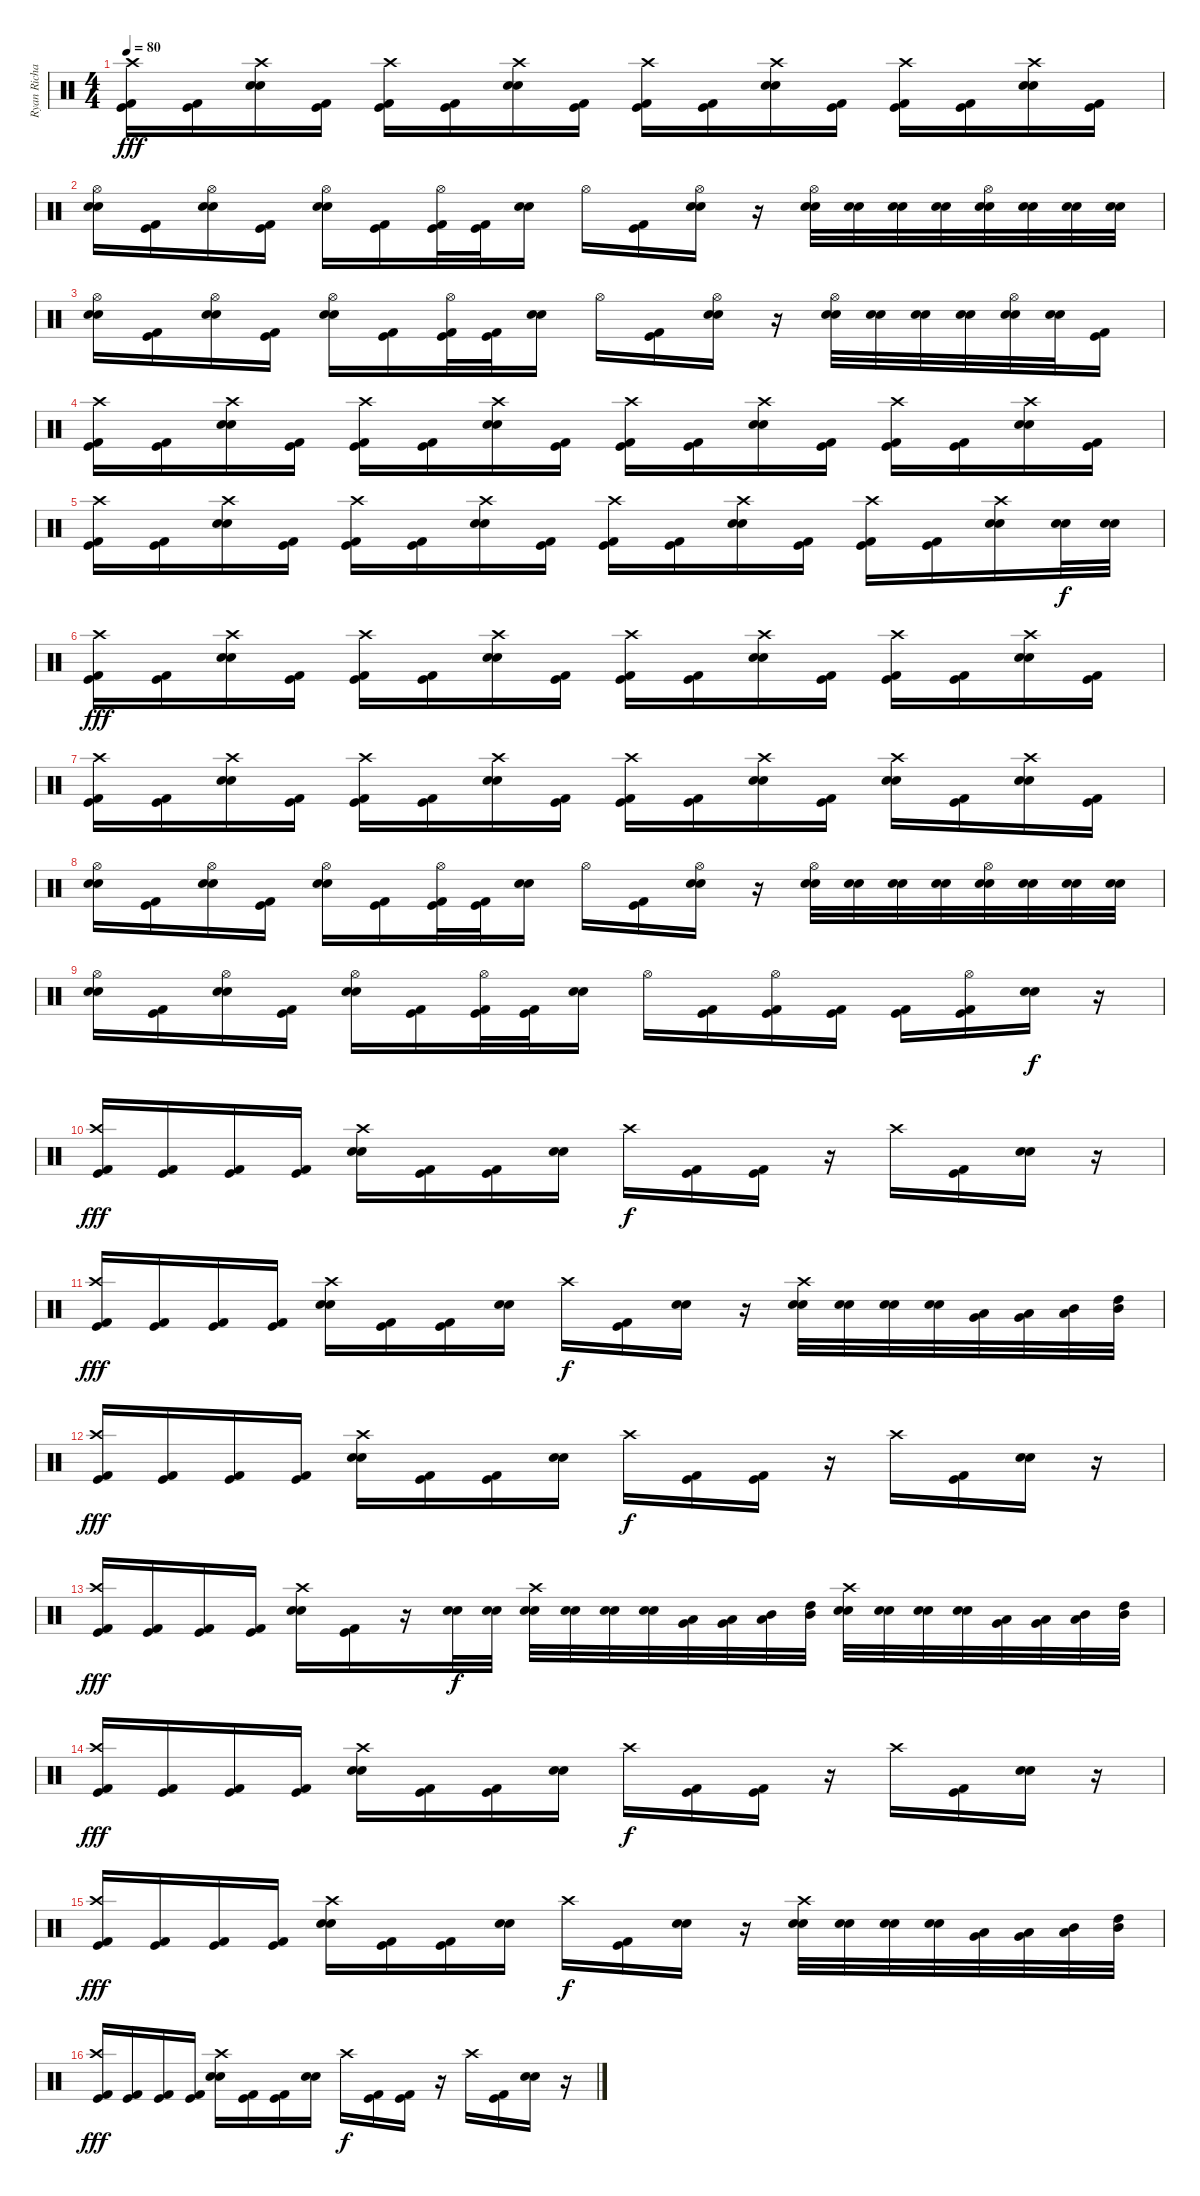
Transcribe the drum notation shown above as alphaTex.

\track ("Ryan Richards" "Ryan Richa") {instrument percussion}
\staff {score}
\articulation defaults
\ts (4 4)
\tempo 80
\clef neutral
\ks c
("Kick (hit)" "Crash high (hit)" "Kick (hit) 2").16{dy fff} ("Kick (hit)" "Kick (hit) 2").16 ("Crash high (hit)" "Snare (hit) 2" "Electric Snare (hit)").16 ("Kick (hit)" "Kick (hit) 2").16 ("Kick (hit)" "Crash high (hit)" "Kick (hit) 2").16 ("Kick (hit)" "Kick (hit) 2").16 ("Crash high (hit)" "Snare (hit) 2" "Electric Snare (hit)").16 ("Kick (hit)" "Kick (hit) 2").16 ("Kick (hit)" "Crash high (hit)" "Kick (hit) 2").16 ("Kick (hit)" "Kick (hit) 2").16 ("Crash high (hit)" "Snare (hit) 2" "Electric Snare (hit)").16 ("Kick (hit)" "Kick (hit) 2").16 ("Kick (hit)" "Crash high (hit)" "Kick (hit) 2").16 ("Kick (hit)" "Kick (hit) 2").16 ("Crash high (hit)" "Snare (hit) 2" "Electric Snare (hit)").16 ("Kick (hit)" "Kick (hit) 2").16 |
("Hi-Hat (open)" "Snare (hit) 2" "Electric Snare (hit)").16 ("Kick (hit)" "Kick (hit) 2").16 ("Hi-Hat (open)" "Snare (hit) 2" "Electric Snare (hit)").16 ("Kick (hit)" "Kick (hit) 2").16 ("Hi-Hat (open)" "Snare (hit) 2" "Electric Snare (hit)").16 ("Kick (hit)" "Kick (hit) 2").16 ("Kick (hit)" "Hi-Hat (open)" "Kick (hit) 2").32 ("Kick (hit)" "Kick (hit) 2").32 ("Snare (hit) 2" "Electric Snare (hit)").16 "Hi-Hat (open)".16 ("Kick (hit)" "Kick (hit) 2").16 ("Hi-Hat (open)" "Snare (hit) 2" "Electric Snare (hit)").16 r.16 ("Hi-Hat (open)" "Snare (hit) 2" "Electric Snare (hit)").32 ("Snare (hit) 2" "Electric Snare (hit)").32 ("Snare (hit) 2" "Electric Snare (hit)").32 ("Snare (hit) 2" "Electric Snare (hit)").32 ("Hi-Hat (open)" "Snare (hit) 2" "Electric Snare (hit)").32 ("Snare (hit) 2" "Electric Snare (hit)").32 ("Snare (hit) 2" "Electric Snare (hit)").32 ("Snare (hit) 2" "Electric Snare (hit)").32 |
("Hi-Hat (open)" "Snare (hit) 2" "Electric Snare (hit)").16 ("Kick (hit)" "Kick (hit) 2").16 ("Hi-Hat (open)" "Snare (hit) 2" "Electric Snare (hit)").16 ("Kick (hit)" "Kick (hit) 2").16 ("Hi-Hat (open)" "Snare (hit) 2" "Electric Snare (hit)").16 ("Kick (hit)" "Kick (hit) 2").16 ("Kick (hit)" "Hi-Hat (open)" "Kick (hit) 2").32 ("Kick (hit)" "Kick (hit) 2").32 ("Snare (hit) 2" "Electric Snare (hit)").16 "Hi-Hat (open)".16 ("Kick (hit)" "Kick (hit) 2").16 ("Hi-Hat (open)" "Snare (hit) 2" "Electric Snare (hit)").16 r.16 ("Hi-Hat (open)" "Snare (hit) 2" "Electric Snare (hit)").32 ("Snare (hit) 2" "Electric Snare (hit)").32 ("Snare (hit) 2" "Electric Snare (hit)").32 ("Snare (hit) 2" "Electric Snare (hit)").32 ("Hi-Hat (open)" "Snare (hit) 2" "Electric Snare (hit)").32 ("Snare (hit) 2" "Electric Snare (hit)").32 ("Kick (hit)" "Kick (hit) 2").16 |
("Kick (hit)" "Crash high (hit)" "Kick (hit) 2").16 ("Kick (hit)" "Kick (hit) 2").16 ("Crash high (hit)" "Snare (hit) 2" "Electric Snare (hit)").16 ("Kick (hit)" "Kick (hit) 2").16 ("Kick (hit)" "Crash high (hit)" "Kick (hit) 2").16 ("Kick (hit)" "Kick (hit) 2").16 ("Crash high (hit)" "Snare (hit) 2" "Electric Snare (hit)").16 ("Kick (hit)" "Kick (hit) 2").16 ("Kick (hit)" "Crash high (hit)" "Kick (hit) 2").16 ("Kick (hit)" "Kick (hit) 2").16 ("Crash high (hit)" "Snare (hit) 2" "Electric Snare (hit)").16 ("Kick (hit)" "Kick (hit) 2").16 ("Kick (hit)" "Crash high (hit)" "Kick (hit) 2").16 ("Kick (hit)" "Kick (hit) 2").16 ("Crash high (hit)" "Snare (hit) 2" "Electric Snare (hit)").16 ("Kick (hit)" "Kick (hit) 2").16 |
("Kick (hit)" "Crash high (hit)" "Kick (hit) 2").16 ("Kick (hit)" "Kick (hit) 2").16 ("Crash high (hit)" "Snare (hit) 2" "Electric Snare (hit)").16 ("Kick (hit)" "Kick (hit) 2").16 ("Kick (hit)" "Crash high (hit)" "Kick (hit) 2").16 ("Kick (hit)" "Kick (hit) 2").16 ("Crash high (hit)" "Snare (hit) 2" "Electric Snare (hit)").16 ("Kick (hit)" "Kick (hit) 2").16 ("Kick (hit)" "Crash high (hit)" "Kick (hit) 2").16 ("Kick (hit)" "Kick (hit) 2").16 ("Crash high (hit)" "Snare (hit) 2" "Electric Snare (hit)").16 ("Kick (hit)" "Kick (hit) 2").16 ("Kick (hit)" "Crash high (hit)" "Kick (hit) 2").16 ("Kick (hit)" "Kick (hit) 2").16 ("Crash high (hit)" "Snare (hit) 2" "Electric Snare (hit)").16 ("Snare (hit) 2" "Electric Snare (hit)").32{dy f} ("Snare (hit) 2" "Electric Snare (hit)").32 |
("Kick (hit)" "Crash high (hit)" "Kick (hit) 2").16{dy fff} ("Kick (hit)" "Kick (hit) 2").16 ("Crash high (hit)" "Snare (hit) 2" "Electric Snare (hit)").16 ("Kick (hit)" "Kick (hit) 2").16 ("Kick (hit)" "Crash high (hit)" "Kick (hit) 2").16 ("Kick (hit)" "Kick (hit) 2").16 ("Crash high (hit)" "Snare (hit) 2" "Electric Snare (hit)").16 ("Kick (hit)" "Kick (hit) 2").16 ("Kick (hit)" "Crash high (hit)" "Kick (hit) 2").16 ("Kick (hit)" "Kick (hit) 2").16 ("Crash high (hit)" "Snare (hit) 2" "Electric Snare (hit)").16 ("Kick (hit)" "Kick (hit) 2").16 ("Kick (hit)" "Crash high (hit)" "Kick (hit) 2").16 ("Kick (hit)" "Kick (hit) 2").16 ("Crash high (hit)" "Snare (hit) 2" "Electric Snare (hit)").16 ("Kick (hit)" "Kick (hit) 2").16 |
("Kick (hit)" "Crash high (hit)" "Kick (hit) 2").16 ("Kick (hit)" "Kick (hit) 2").16 ("Crash high (hit)" "Snare (hit) 2" "Electric Snare (hit)").16 ("Kick (hit)" "Kick (hit) 2").16 ("Kick (hit)" "Crash high (hit)" "Kick (hit) 2").16 ("Kick (hit)" "Kick (hit) 2").16 ("Crash high (hit)" "Snare (hit) 2" "Electric Snare (hit)").16 ("Kick (hit)" "Kick (hit) 2").16 ("Kick (hit)" "Crash high (hit)" "Kick (hit) 2").16 ("Kick (hit)" "Kick (hit) 2").16 ("Crash high (hit)" "Snare (hit) 2" "Electric Snare (hit)").16 ("Kick (hit)" "Kick (hit) 2").16 ("Crash high (hit)" "Snare (hit) 2" "Electric Snare (hit)").16 ("Kick (hit)" "Kick (hit) 2").16 ("Crash high (hit)" "Snare (hit) 2" "Electric Snare (hit)").16 ("Kick (hit)" "Kick (hit) 2").16 |
("Hi-Hat (open)" "Snare (hit) 2" "Electric Snare (hit)").16 ("Kick (hit)" "Kick (hit) 2").16 ("Hi-Hat (open)" "Snare (hit) 2" "Electric Snare (hit)").16 ("Kick (hit)" "Kick (hit) 2").16 ("Hi-Hat (open)" "Snare (hit) 2" "Electric Snare (hit)").16 ("Kick (hit)" "Kick (hit) 2").16 ("Kick (hit)" "Hi-Hat (open)" "Kick (hit) 2").32 ("Kick (hit)" "Kick (hit) 2").32 ("Snare (hit) 2" "Electric Snare (hit)").16 "Hi-Hat (open)".16 ("Kick (hit)" "Kick (hit) 2").16 ("Hi-Hat (open)" "Snare (hit) 2" "Electric Snare (hit)").16 r.16 ("Hi-Hat (open)" "Snare (hit) 2" "Electric Snare (hit)").32 ("Snare (hit) 2" "Electric Snare (hit)").32 ("Snare (hit) 2" "Electric Snare (hit)").32 ("Snare (hit) 2" "Electric Snare (hit)").32 ("Hi-Hat (open)" "Snare (hit) 2" "Electric Snare (hit)").32 ("Snare (hit) 2" "Electric Snare (hit)").32 ("Snare (hit) 2" "Electric Snare (hit)").32 ("Snare (hit) 2" "Electric Snare (hit)").32 |
("Hi-Hat (open)" "Snare (hit) 2" "Electric Snare (hit)").16 ("Kick (hit)" "Kick (hit) 2").16 ("Hi-Hat (open)" "Snare (hit) 2" "Electric Snare (hit)").16 ("Kick (hit)" "Kick (hit) 2").16 ("Hi-Hat (open)" "Snare (hit) 2" "Electric Snare (hit)").16 ("Kick (hit)" "Kick (hit) 2").16 ("Kick (hit)" "Hi-Hat (open)" "Kick (hit) 2").32 ("Kick (hit)" "Kick (hit) 2").32 ("Snare (hit) 2" "Electric Snare (hit)").16 "Hi-Hat (open)".16 ("Kick (hit)" "Kick (hit) 2").16 ("Kick (hit)" "Hi-Hat (open)" "Kick (hit) 2").16 ("Kick (hit)" "Kick (hit) 2").16 ("Kick (hit)" "Kick (hit) 2").16 ("Kick (hit)" "Hi-Hat (open)" "Kick (hit) 2").16 ("Snare (hit) 2" "Electric Snare (hit)").16{dy f} r.16 |
("Kick (hit)" "Crash high (hit)" "Kick (hit) 2").16{dy fff} ("Kick (hit)" "Kick (hit) 2").16 ("Kick (hit)" "Kick (hit) 2").16 ("Kick (hit)" "Kick (hit) 2").16 ("Snare (hit) 2" "Crash high (hit)" "Electric Snare (hit)").16 ("Kick (hit)" "Kick (hit) 2").16 ("Kick (hit)" "Kick (hit) 2").16 ("Snare (hit) 2" "Electric Snare (hit)").16 "Crash high (hit)".16{dy f} ("Kick (hit)" "Kick (hit) 2").16 ("Kick (hit)" "Kick (hit) 2").16 r.16 "Crash high (hit)".16 ("Kick (hit)" "Kick (hit) 2").16 ("Snare (hit) 2" "Electric Snare (hit)").16 r.16 |
("Kick (hit)" "Crash high (hit)" "Kick (hit) 2").16{dy fff} ("Kick (hit)" "Kick (hit) 2").16 ("Kick (hit)" "Kick (hit) 2").16 ("Kick (hit)" "Kick (hit) 2").16 ("Snare (hit) 2" "Crash high (hit)" "Electric Snare (hit)").16 ("Kick (hit)" "Kick (hit) 2").16 ("Kick (hit)" "Kick (hit) 2").16 ("Snare (hit) 2" "Electric Snare (hit)").16 "Crash high (hit)".16{dy f} ("Kick (hit)" "Kick (hit) 2").16 ("Snare (hit) 2" "Electric Snare (hit)").16 r.16 ("Snare (hit) 2" "Crash high (hit)" "Electric Snare (hit)").32 ("Snare (hit) 2" "Electric Snare (hit)").32 ("Snare (hit) 2" "Electric Snare (hit)").32 ("Snare (hit) 2" "Electric Snare (hit)").32 ("Very Low Tom (hit)" "Low Floor Tom (hit)").32 ("Low Tom (hit)" "Very Low Tom (hit)").32 ("Mid Tom (hit)" "Low Tom (hit)").32 ("High Tom (hit)" "Mid Tom (hit)").32 |
("Kick (hit)" "Crash high (hit)" "Kick (hit) 2").16{dy fff} ("Kick (hit)" "Kick (hit) 2").16 ("Kick (hit)" "Kick (hit) 2").16 ("Kick (hit)" "Kick (hit) 2").16 ("Snare (hit) 2" "Crash high (hit)" "Electric Snare (hit)").16 ("Kick (hit)" "Kick (hit) 2").16 ("Kick (hit)" "Kick (hit) 2").16 ("Snare (hit) 2" "Electric Snare (hit)").16 "Crash high (hit)".16{dy f} ("Kick (hit)" "Kick (hit) 2").16 ("Kick (hit)" "Kick (hit) 2").16 r.16 "Crash high (hit)".16 ("Kick (hit)" "Kick (hit) 2").16 ("Snare (hit) 2" "Electric Snare (hit)").16 r.16 |
("Kick (hit)" "Crash high (hit)" "Kick (hit) 2").16{dy fff} ("Kick (hit)" "Kick (hit) 2").16 ("Kick (hit)" "Kick (hit) 2").16 ("Kick (hit)" "Kick (hit) 2").16 ("Snare (hit) 2" "Crash high (hit)" "Electric Snare (hit)").16 ("Kick (hit)" "Kick (hit) 2").16 r.16 ("Snare (hit) 2" "Electric Snare (hit)").32{dy f} ("Snare (hit) 2" "Electric Snare (hit)").32 ("Snare (hit) 2" "Crash high (hit)" "Electric Snare (hit)").32 ("Snare (hit) 2" "Electric Snare (hit)").32 ("Snare (hit) 2" "Electric Snare (hit)").32 ("Snare (hit) 2" "Electric Snare (hit)").32 ("Very Low Tom (hit)" "Low Floor Tom (hit)").32 ("Low Tom (hit)" "Very Low Tom (hit)").32 ("Mid Tom (hit)" "Low Tom (hit)").32 ("High Tom (hit)" "Mid Tom (hit)").32 ("Snare (hit) 2" "Crash high (hit)" "Electric Snare (hit)").32 ("Snare (hit) 2" "Electric Snare (hit)").32 ("Snare (hit) 2" "Electric Snare (hit)").32 ("Snare (hit) 2" "Electric Snare (hit)").32 ("Very Low Tom (hit)" "Low Floor Tom (hit)").32 ("Low Tom (hit)" "Very Low Tom (hit)").32 ("Mid Tom (hit)" "Low Tom (hit)").32 ("High Tom (hit)" "Mid Tom (hit)").32 |
("Kick (hit)" "Crash high (hit)" "Kick (hit) 2").16{dy fff} ("Kick (hit)" "Kick (hit) 2").16 ("Kick (hit)" "Kick (hit) 2").16 ("Kick (hit)" "Kick (hit) 2").16 ("Snare (hit) 2" "Crash high (hit)" "Electric Snare (hit)").16 ("Kick (hit)" "Kick (hit) 2").16 ("Kick (hit)" "Kick (hit) 2").16 ("Snare (hit) 2" "Electric Snare (hit)").16 "Crash high (hit)".16{dy f} ("Kick (hit)" "Kick (hit) 2").16 ("Kick (hit)" "Kick (hit) 2").16 r.16 "Crash high (hit)".16 ("Kick (hit)" "Kick (hit) 2").16 ("Snare (hit) 2" "Electric Snare (hit)").16 r.16 |
("Kick (hit)" "Crash high (hit)" "Kick (hit) 2").16{dy fff} ("Kick (hit)" "Kick (hit) 2").16 ("Kick (hit)" "Kick (hit) 2").16 ("Kick (hit)" "Kick (hit) 2").16 ("Snare (hit) 2" "Crash high (hit)" "Electric Snare (hit)").16 ("Kick (hit)" "Kick (hit) 2").16 ("Kick (hit)" "Kick (hit) 2").16 ("Snare (hit) 2" "Electric Snare (hit)").16 "Crash high (hit)".16{dy f} ("Kick (hit)" "Kick (hit) 2").16 ("Snare (hit) 2" "Electric Snare (hit)").16 r.16 ("Snare (hit) 2" "Crash high (hit)" "Electric Snare (hit)").32 ("Snare (hit) 2" "Electric Snare (hit)").32 ("Snare (hit) 2" "Electric Snare (hit)").32 ("Snare (hit) 2" "Electric Snare (hit)").32 ("Very Low Tom (hit)" "Low Floor Tom (hit)").32 ("Low Tom (hit)" "Very Low Tom (hit)").32 ("Mid Tom (hit)" "Low Tom (hit)").32 ("High Tom (hit)" "Mid Tom (hit)").32 |
("Kick (hit)" "Crash high (hit)" "Kick (hit) 2").16{dy fff} ("Kick (hit)" "Kick (hit) 2").16 ("Kick (hit)" "Kick (hit) 2").16 ("Kick (hit)" "Kick (hit) 2").16 ("Snare (hit) 2" "Crash high (hit)" "Electric Snare (hit)").16 ("Kick (hit)" "Kick (hit) 2").16 ("Kick (hit)" "Kick (hit) 2").16 ("Snare (hit) 2" "Electric Snare (hit)").16 "Crash high (hit)".16{dy f} ("Kick (hit)" "Kick (hit) 2").16 ("Kick (hit)" "Kick (hit) 2").16 r.16 "Crash high (hit)".16 ("Kick (hit)" "Kick (hit) 2").16 ("Snare (hit) 2" "Electric Snare (hit)").16 r.16
